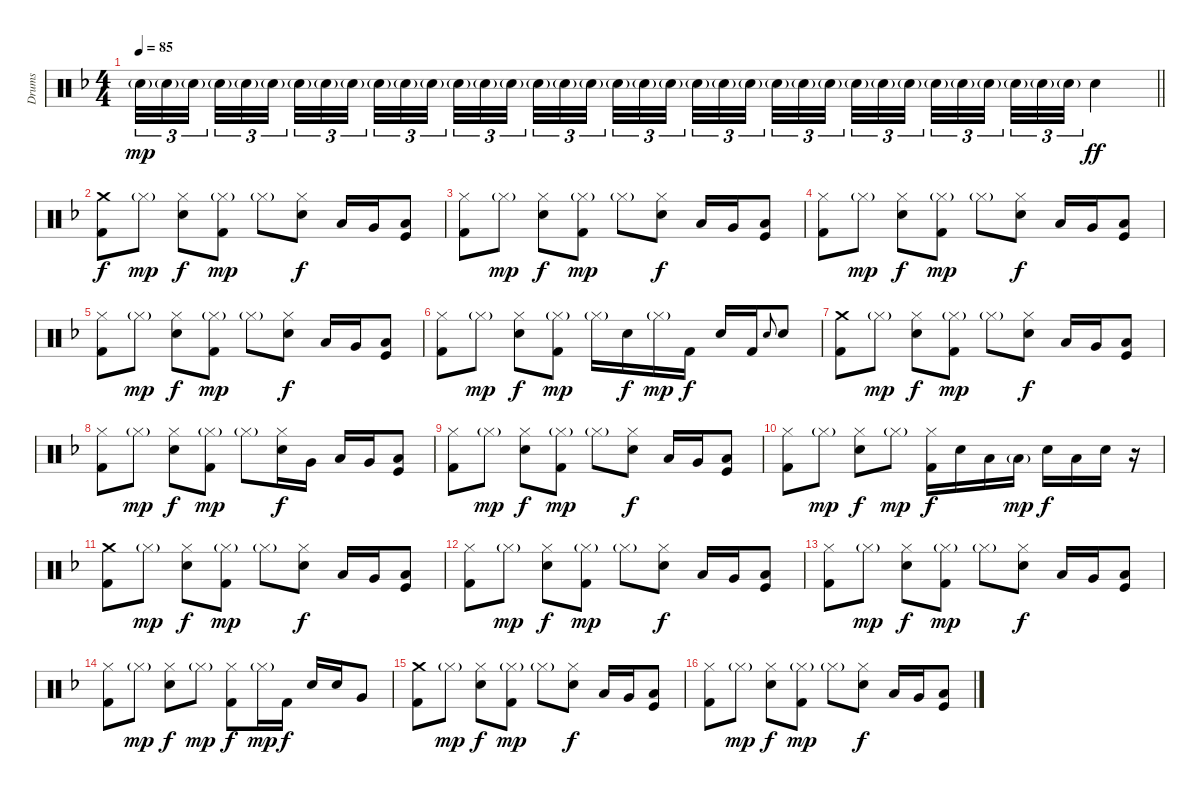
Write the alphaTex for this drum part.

\track ("Drums" "Drums") {instrument percussion}
\staff {score}
\articulation defaults
\ts (4 4)
\tempo 85
\clef neutral
\barLineRight lightlight
\ks dminor "Electric Snare (hit)"{g}.32{tu (3 2) dy mp volume 2} "Electric Snare (hit)"{g}.32{tu (3 2)} "Electric Snare (hit)"{g}.32{tu (3 2) beam splitsecondary} "Electric Snare (hit)"{g}.32{tu (3 2)} "Electric Snare (hit)"{g}.32{tu (3 2)} "Electric Snare (hit)"{g}.32{tu (3 2) beam splitsecondary} "Electric Snare (hit)"{g}.32{tu (3 2)} "Electric Snare (hit)"{g}.32{tu (3 2)} "Electric Snare (hit)"{g}.32{tu (3 2) beam splitsecondary} "Electric Snare (hit)"{g}.32{tu (3 2)} "Electric Snare (hit)"{g}.32{tu (3 2)} "Electric Snare (hit)"{g}.32{tu (3 2)} "Electric Snare (hit)"{g}.32{tu (3 2) volume 12} "Electric Snare (hit)"{g}.32{tu (3 2)} "Electric Snare (hit)"{g}.32{tu (3 2) beam splitsecondary} "Electric Snare (hit)"{g}.32{tu (3 2)} "Electric Snare (hit)"{g}.32{tu (3 2)} "Electric Snare (hit)"{g}.32{tu (3 2) beam splitsecondary} "Electric Snare (hit)"{g}.32{tu (3 2)} "Electric Snare (hit)"{g}.32{tu (3 2)} "Electric Snare (hit)"{g}.32{tu (3 2) beam splitsecondary} "Electric Snare (hit)"{g}.32{tu (3 2)} "Electric Snare (hit)"{g}.32{tu (3 2)} "Electric Snare (hit)"{g}.32{tu (3 2)} "Electric Snare (hit)"{g}.32{tu (3 2)} "Electric Snare (hit)"{g}.32{tu (3 2)} "Electric Snare (hit)"{g}.32{tu (3 2) beam splitsecondary} "Electric Snare (hit)"{g}.32{tu (3 2)} "Electric Snare (hit)"{g}.32{tu (3 2)} "Electric Snare (hit)"{g}.32{tu (3 2) beam splitsecondary} "Electric Snare (hit)"{g}.32{tu (3 2)} "Electric Snare (hit)"{g}.32{tu (3 2)} "Electric Snare (hit)"{g}.32{tu (3 2) beam splitsecondary} "Electric Snare (hit)"{g}.32{tu (3 2)} "Electric Snare (hit)"{g}.32{tu (3 2)} "Electric Snare (hit)"{g}.32{tu (3 2)} "Electric Snare (hit)".4{dy ff}
|
\section ("" "")
("Crash medium (hit)" "Kick (hit) 2").8{dy f} "Hi-Hat (closed)"{g}.8{dy mp} ("Hi-Hat (closed)" "Electric Snare (hit)").8{dy f} ("Hi-Hat (closed)"{g} "Kick (hit) 2").8{dy mp} "Hi-Hat (closed)"{g}.8 ("Hi-Hat (closed)" "Electric Snare (hit)").8{dy f} "Low Tom (hit)".16 "Very Low Tom (hit)".16 ("Low Floor Tom (hit)" "Kick (hit)").8 |
("Hi-Hat (closed)" "Kick (hit) 2").8 "Hi-Hat (closed)"{g}.8{dy mp} ("Hi-Hat (closed)" "Electric Snare (hit)").8{dy f} ("Hi-Hat (closed)"{g} "Kick (hit) 2").8{dy mp} "Hi-Hat (closed)"{g}.8 ("Hi-Hat (closed)" "Electric Snare (hit)").8{dy f} "Low Tom (hit)".16 "Very Low Tom (hit)".16 ("Low Floor Tom (hit)" "Kick (hit)").8 |
("Hi-Hat (closed)" "Kick (hit) 2").8 "Hi-Hat (closed)"{g}.8{dy mp} ("Hi-Hat (closed)" "Electric Snare (hit)").8{dy f} ("Hi-Hat (closed)"{g} "Kick (hit) 2").8{dy mp} "Hi-Hat (closed)"{g}.8 ("Hi-Hat (closed)" "Electric Snare (hit)").8{dy f} "Low Tom (hit)".16 "Very Low Tom (hit)".16 ("Low Floor Tom (hit)" "Kick (hit)").8 |
("Hi-Hat (closed)" "Kick (hit) 2").8 "Hi-Hat (closed)"{g}.8{dy mp} ("Hi-Hat (closed)" "Electric Snare (hit)").8{dy f} ("Hi-Hat (closed)"{g} "Kick (hit) 2").8{dy mp} "Hi-Hat (closed)"{g}.8 ("Hi-Hat (closed)" "Electric Snare (hit)").8{dy f} "Low Tom (hit)".16 "Very Low Tom (hit)".16 ("Low Floor Tom (hit)" "Kick (hit)").8 |
("Hi-Hat (closed)" "Kick (hit) 2").8 "Hi-Hat (closed)"{g}.8{dy mp} ("Hi-Hat (closed)" "Electric Snare (hit)").8{dy f} ("Hi-Hat (closed)"{g} "Kick (hit) 2").8{dy mp} "Hi-Hat (closed)"{g}.16 "Electric Snare (hit)".16{dy f} "Hi-Hat (closed)"{g}.16{dy mp} "Kick (hit) 2".16{dy f} "Electric Snare (hit)".16 "Kick (hit) 2".16 "Electric Snare (hit)".8{gr onbeat} "Electric Snare (hit)".8 |
("Crash medium (hit)" "Kick (hit) 2").8 "Hi-Hat (closed)"{g}.8{dy mp} ("Hi-Hat (closed)" "Electric Snare (hit)").8{dy f} ("Hi-Hat (closed)"{g} "Kick (hit) 2").8{dy mp} "Hi-Hat (closed)"{g}.8 ("Hi-Hat (closed)" "Electric Snare (hit)").8{dy f} "Low Tom (hit)".16 "Very Low Tom (hit)".16 ("Low Floor Tom (hit)" "Kick (hit)").8 |
("Hi-Hat (closed)" "Kick (hit) 2").8 "Hi-Hat (closed)"{g}.8{dy mp} ("Hi-Hat (closed)" "Electric Snare (hit)").8{dy f} ("Hi-Hat (closed)"{g} "Kick (hit) 2").8{dy mp} "Hi-Hat (closed)"{g}.8 ("Hi-Hat (closed)" "Electric Snare (hit)").16{dy f} "Very Low Tom (hit)".16 "Low Tom (hit)".16 "Very Low Tom (hit)".16 ("Low Floor Tom (hit)" "Kick (hit)").8 |
("Hi-Hat (closed)" "Kick (hit) 2").8 "Hi-Hat (closed)"{g}.8{dy mp} ("Hi-Hat (closed)" "Electric Snare (hit)").8{dy f} ("Hi-Hat (closed)"{g} "Kick (hit) 2").8{dy mp} "Hi-Hat (closed)"{g}.8 ("Hi-Hat (closed)" "Electric Snare (hit)").8{dy f} "Low Tom (hit)".16 "Very Low Tom (hit)".16 ("Low Floor Tom (hit)" "Kick (hit)").8 |
("Hi-Hat (closed)" "Kick (hit) 2").8 "Hi-Hat (closed)"{g}.8{dy mp} ("Hi-Hat (closed)" "Electric Snare (hit)").8{dy f} "Hi-Hat (closed)"{g}.8{dy mp} ("Hi-Hat (closed)" "Kick (hit) 2").16{dy f} "Electric Snare (hit)".16 "Low Tom (hit)".16 "Low Tom (hit)"{g}.16{dy mp} "Electric Snare (hit)".16{dy f} "Low Tom (hit)".16 "Electric Snare (hit)".16 r.16 |
("Crash medium (hit)" "Kick (hit) 2").8 "Hi-Hat (closed)"{g}.8{dy mp} ("Hi-Hat (closed)" "Electric Snare (hit)").8{dy f} ("Hi-Hat (closed)"{g} "Kick (hit) 2").8{dy mp} "Hi-Hat (closed)"{g}.8 ("Hi-Hat (closed)" "Electric Snare (hit)").8{dy f} "Low Tom (hit)".16 "Very Low Tom (hit)".16 ("Low Floor Tom (hit)" "Kick (hit)").8 |
("Hi-Hat (closed)" "Kick (hit) 2").8 "Hi-Hat (closed)"{g}.8{dy mp} ("Hi-Hat (closed)" "Electric Snare (hit)").8{dy f} ("Hi-Hat (closed)"{g} "Kick (hit) 2").8{dy mp} "Hi-Hat (closed)"{g}.8 ("Hi-Hat (closed)" "Electric Snare (hit)").8{dy f} "Low Tom (hit)".16 "Very Low Tom (hit)".16 ("Low Floor Tom (hit)" "Kick (hit)").8 |
("Hi-Hat (closed)" "Kick (hit) 2").8 "Hi-Hat (closed)"{g}.8{dy mp} ("Hi-Hat (closed)" "Electric Snare (hit)").8{dy f} ("Hi-Hat (closed)"{g} "Kick (hit) 2").8{dy mp} "Hi-Hat (closed)"{g}.8 ("Hi-Hat (closed)" "Electric Snare (hit)").8{dy f} "Low Tom (hit)".16 "Very Low Tom (hit)".16 ("Low Floor Tom (hit)" "Kick (hit)").8 |
("Hi-Hat (closed)" "Kick (hit) 2").8 "Hi-Hat (closed)"{g}.8{dy mp} ("Hi-Hat (closed)" "Electric Snare (hit)").8{dy f} "Hi-Hat (closed)"{g}.8{dy mp} ("Hi-Hat (closed)" "Kick (hit) 2").8{dy f} "Hi-Hat (closed)"{g}.16{dy mp} "Kick (hit) 2".16{dy f} "Electric Snare (hit)".16 "Electric Snare (hit)".16 "Very Low Tom (hit)".8 |
("Crash medium (hit)" "Kick (hit) 2").8 "Hi-Hat (closed)"{g}.8{dy mp} ("Hi-Hat (closed)" "Electric Snare (hit)").8{dy f} ("Hi-Hat (closed)"{g} "Kick (hit) 2").8{dy mp} "Hi-Hat (closed)"{g}.8 ("Hi-Hat (closed)" "Electric Snare (hit)").8{dy f} "Low Tom (hit)".16 "Very Low Tom (hit)".16 ("Low Floor Tom (hit)" "Kick (hit)").8 |
("Hi-Hat (closed)" "Kick (hit) 2").8 "Hi-Hat (closed)"{g}.8{dy mp} ("Hi-Hat (closed)" "Electric Snare (hit)").8{dy f} ("Hi-Hat (closed)"{g} "Kick (hit) 2").8{dy mp} "Hi-Hat (closed)"{g}.8 ("Hi-Hat (closed)" "Electric Snare (hit)").8{dy f} "Low Tom (hit)".16 "Very Low Tom (hit)".16 ("Low Floor Tom (hit)" "Kick (hit)").8
